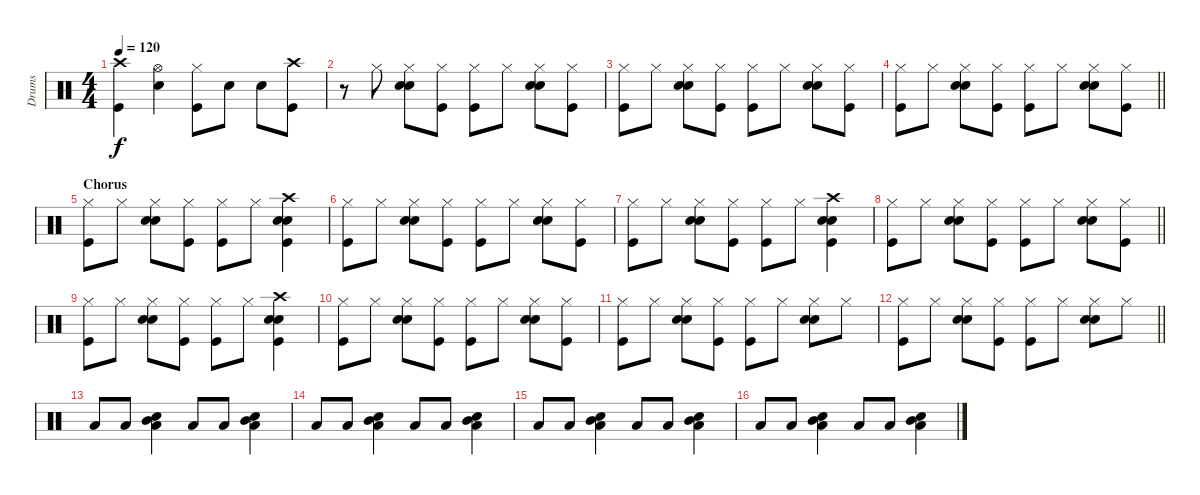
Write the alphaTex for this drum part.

\track ("Drums" "Drums") {instrument percussion}
\staff {score}
\articulation defaults
\ts (4 4)
\tempo 120
\clef neutral
\ks c
("Crash high (hit)" "Kick (hit)").4{dy f} ("Hi-Hat (open)" "Snare (hit) 2").4 ("Hi-Hat (closed)" "Kick (hit)").8 "Snare (hit) 2".8 "Snare (hit) 2".8 ("Crash high (hit)" "Kick (hit)").8 |
r.8 "Hi-Hat (closed)".8 ("Hi-Hat (closed)" "Snare (hit) 2" "Hand Clap (hit)").8 ("Hi-Hat (closed)" "Kick (hit)").8 ("Hi-Hat (closed)" "Kick (hit)").8 "Hi-Hat (closed)".8 ("Hi-Hat (closed)" "Snare (hit) 2" "Hand Clap (hit)").8 ("Hi-Hat (closed)" "Kick (hit)").8 |
("Hi-Hat (closed)" "Kick (hit)").8 "Hi-Hat (closed)".8 ("Hi-Hat (closed)" "Snare (hit) 2" "Hand Clap (hit)").8 ("Hi-Hat (closed)" "Kick (hit)").8 ("Hi-Hat (closed)" "Kick (hit)").8 "Hi-Hat (closed)".8 ("Hi-Hat (closed)" "Snare (hit) 2" "Hand Clap (hit)").8 ("Hi-Hat (closed)" "Kick (hit)").8 |
\barLineRight lightlight
("Hi-Hat (closed)" "Kick (hit)").8 "Hi-Hat (closed)".8 ("Hi-Hat (closed)" "Snare (hit) 2" "Hand Clap (hit)").8 ("Hi-Hat (closed)" "Kick (hit)").8 ("Hi-Hat (closed)" "Kick (hit)").8 "Hi-Hat (closed)".8 ("Hi-Hat (closed)" "Snare (hit) 2" "Hand Clap (hit)").8 ("Hi-Hat (closed)" "Kick (hit)").8 |
\section ("" "Chorus")
("Hi-Hat (closed)" "Kick (hit)").8 "Hi-Hat (closed)".8 ("Hi-Hat (closed)" "Snare (hit) 2" "Hand Clap (hit)").8 ("Hi-Hat (closed)" "Kick (hit)").8 ("Hi-Hat (closed)" "Kick (hit)").8 "Hi-Hat (closed)".8 ("Crash high (hit)" "Snare (hit) 2" "Hand Clap (hit)" "Kick (hit)").4 |
("Hi-Hat (closed)" "Kick (hit)").8 "Hi-Hat (closed)".8 ("Hi-Hat (closed)" "Snare (hit) 2" "Hand Clap (hit)").8 ("Hi-Hat (closed)" "Kick (hit)").8 ("Hi-Hat (closed)" "Kick (hit)").8 "Hi-Hat (closed)".8 ("Hi-Hat (closed)" "Snare (hit) 2" "Hand Clap (hit)").8 ("Hi-Hat (closed)" "Kick (hit)").8 |
("Hi-Hat (closed)" "Kick (hit)").8 "Hi-Hat (closed)".8 ("Hi-Hat (closed)" "Snare (hit) 2" "Hand Clap (hit)").8 ("Hi-Hat (closed)" "Kick (hit)").8 ("Hi-Hat (closed)" "Kick (hit)").8 "Hi-Hat (closed)".8 ("Crash high (hit)" "Snare (hit) 2" "Hand Clap (hit)" "Kick (hit)").4 |
\barLineRight lightlight
("Hi-Hat (closed)" "Kick (hit)").8 "Hi-Hat (closed)".8 ("Hi-Hat (closed)" "Snare (hit) 2" "Hand Clap (hit)").8 ("Hi-Hat (closed)" "Kick (hit)").8 ("Hi-Hat (closed)" "Kick (hit)").8 "Hi-Hat (closed)".8 ("Hi-Hat (closed)" "Snare (hit) 2" "Hand Clap (hit)").8 ("Hi-Hat (closed)" "Kick (hit)").8 |
("Hi-Hat (closed)" "Kick (hit)").8 "Hi-Hat (closed)".8 ("Hi-Hat (closed)" "Snare (hit) 2" "Hand Clap (hit)").8 ("Hi-Hat (closed)" "Kick (hit)").8 ("Hi-Hat (closed)" "Kick (hit)").8 "Hi-Hat (closed)".8 ("Crash high (hit)" "Snare (hit) 2" "Hand Clap (hit)" "Kick (hit)").4 |
("Hi-Hat (closed)" "Kick (hit)").8 "Hi-Hat (closed)".8 ("Hi-Hat (closed)" "Snare (hit) 2" "Hand Clap (hit)").8 ("Hi-Hat (closed)" "Kick (hit)").8 ("Hi-Hat (closed)" "Kick (hit)").8 "Hi-Hat (closed)".8 ("Hi-Hat (closed)" "Snare (hit) 2" "Hand Clap (hit)").8 ("Hi-Hat (closed)" "Kick (hit)").8 |
("Hi-Hat (closed)" "Kick (hit)").8 "Hi-Hat (closed)".8 ("Hi-Hat (closed)" "Snare (hit) 2" "Hand Clap (hit)").8 ("Hi-Hat (closed)" "Kick (hit)").8 ("Hi-Hat (closed)" "Kick (hit)").8 "Hi-Hat (closed)".8 ("Hi-Hat (closed)" "Snare (hit) 2" "Hand Clap (hit)").8 "Hi-Hat (closed)".8 |
\barLineRight lightlight
("Hi-Hat (closed)" "Kick (hit)").8 "Hi-Hat (closed)".8 ("Hi-Hat (closed)" "Snare (hit) 2" "Hand Clap (hit)").8 ("Hi-Hat (closed)" "Kick (hit)").8 ("Hi-Hat (closed)" "Kick (hit)").8 "Hi-Hat (closed)".8 ("Hi-Hat (closed)" "Snare (hit) 2" "Hand Clap (hit)").8 "Hi-Hat (closed)".8 |
"Low Tom (hit)".8 "Low Tom (hit)".8 ("Hand Clap (hit)" "Mid Tom (hit)" "Low Tom (hit)").4 "Low Tom (hit)".8 "Low Tom (hit)".8 ("Hand Clap (hit)" "Mid Tom (hit)" "Low Tom (hit)").4 |
"Low Tom (hit)".8 "Low Tom (hit)".8 ("Hand Clap (hit)" "Mid Tom (hit)" "Low Tom (hit)").4 "Low Tom (hit)".8 "Low Tom (hit)".8 ("Hand Clap (hit)" "Mid Tom (hit)" "Low Tom (hit)").4 |
"Low Tom (hit)".8 "Low Tom (hit)".8 ("Hand Clap (hit)" "Mid Tom (hit)" "Low Tom (hit)").4 "Low Tom (hit)".8 "Low Tom (hit)".8 ("Hand Clap (hit)" "Mid Tom (hit)" "Low Tom (hit)").4 |
"Low Tom (hit)".8 "Low Tom (hit)".8 ("Hand Clap (hit)" "Mid Tom (hit)" "Low Tom (hit)").4 "Low Tom (hit)".8 "Low Tom (hit)".8 ("Hand Clap (hit)" "Mid Tom (hit)" "Low Tom (hit)").4
